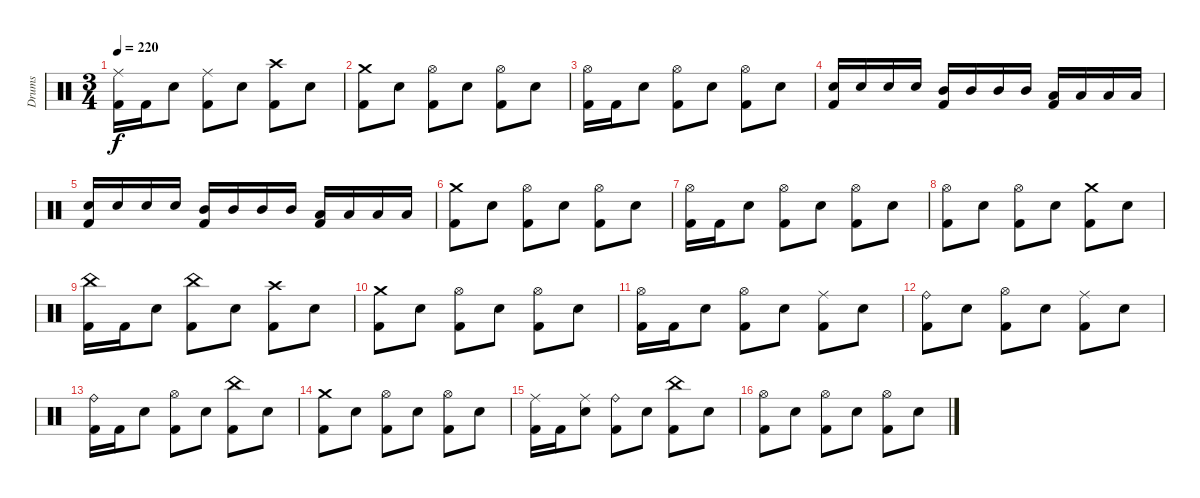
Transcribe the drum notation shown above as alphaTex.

\track ("Drums" "Drums") {instrument percussion}
\staff {score}
\articulation defaults
\ts (3 4)
\tempo 220
\clef neutral
\ks c
("Ride (middle)" "Kick (hit) 2").16{dy f} "Kick (hit) 2".16 "Electric Snare (hit)".8 ("Ride (middle)" "Kick (hit) 2").8 "Electric Snare (hit)".8 ("Crash high (hit)" "Kick (hit) 2").8 "Electric Snare (hit)".8 |
("Crash medium (hit)" "Kick (hit) 2").8 "Electric Snare (hit)".8 ("Hi-Hat (open)" "Kick (hit) 2").8 "Electric Snare (hit)".8 ("Hi-Hat (open)" "Kick (hit) 2").8 "Electric Snare (hit)".8 |
("Hi-Hat (open)" "Kick (hit) 2").16 "Kick (hit) 2".16 "Electric Snare (hit)".8 ("Hi-Hat (open)" "Kick (hit) 2").8 "Electric Snare (hit)".8 ("Hi-Hat (open)" "Kick (hit) 2").8 "Electric Snare (hit)".8 |
("Electric Snare (hit)" "Kick (hit) 2").16 "Electric Snare (hit)".16 "Electric Snare (hit)".16 "Electric Snare (hit)".16 ("Mid Tom (hit)" "Kick (hit) 2").16 "Mid Tom (hit)".16 "Mid Tom (hit)".16 "Mid Tom (hit)".16 ("Low Tom (hit)" "Kick (hit) 2").16 "Low Tom (hit)".16 "Low Tom (hit)".16 "Low Tom (hit)".16 |
("Electric Snare (hit)" "Kick (hit) 2").16 "Electric Snare (hit)".16 "Electric Snare (hit)".16 "Electric Snare (hit)".16 ("Mid Tom (hit)" "Kick (hit) 2").16 "Mid Tom (hit)".16 "Mid Tom (hit)".16 "Mid Tom (hit)".16 ("Low Tom (hit)" "Kick (hit) 2").16 "Low Tom (hit)".16 "Low Tom (hit)".16 "Low Tom (hit)".16 |
("Crash medium (hit)" "Kick (hit) 2").8 "Electric Snare (hit)".8 ("Hi-Hat (open)" "Kick (hit) 2").8 "Electric Snare (hit)".8 ("Hi-Hat (open)" "Kick (hit) 2").8 "Electric Snare (hit)".8 |
("Hi-Hat (open)" "Kick (hit) 2").16 "Kick (hit) 2".16 "Electric Snare (hit)".8 ("Hi-Hat (open)" "Kick (hit) 2").8 "Electric Snare (hit)".8 ("Hi-Hat (open)" "Kick (hit) 2").8 "Electric Snare (hit)".8 |
("Hi-Hat (open)" "Kick (hit) 2").8 "Electric Snare (hit)".8 ("Hi-Hat (open)" "Kick (hit) 2").8 "Electric Snare (hit)".8 ("Crash medium (hit)" "Kick (hit) 2").8 "Electric Snare (hit)".8 |
("China (hit)" "Kick (hit) 2").16 "Kick (hit) 2".16 "Electric Snare (hit)".8 ("China (hit)" "Kick (hit) 2").8 "Electric Snare (hit)".8 ("Crash high (hit)" "Kick (hit) 2").8 "Electric Snare (hit)".8 |
("Crash medium (hit)" "Kick (hit) 2").8 "Electric Snare (hit)".8 ("Hi-Hat (open)" "Kick (hit) 2").8 "Electric Snare (hit)".8 ("Hi-Hat (open)" "Kick (hit) 2").8 "Electric Snare (hit)".8 |
("Hi-Hat (open)" "Kick (hit) 2").16 "Kick (hit) 2".16 "Electric Snare (hit)".8 ("Hi-Hat (open)" "Kick (hit) 2").8 "Electric Snare (hit)".8 ("Ride (middle)" "Kick (hit) 2").8 "Electric Snare (hit)".8 |
("Ride (bell)" "Kick (hit) 2").8 "Electric Snare (hit)".8 ("Hi-Hat (open)" "Kick (hit) 2").8 "Electric Snare (hit)".8 ("Ride (middle)" "Kick (hit) 2").8 "Electric Snare (hit)".8 |
("Ride (bell)" "Kick (hit) 2").16 "Kick (hit) 2".16 "Electric Snare (hit)".8 ("Hi-Hat (open)" "Kick (hit) 2").8 "Electric Snare (hit)".8 ("China (hit)" "Kick (hit) 2").8 "Electric Snare (hit)".8 |
("Crash medium (hit)" "Kick (hit) 2").8 "Electric Snare (hit)".8 ("Hi-Hat (open)" "Kick (hit) 2").8 "Electric Snare (hit)".8 ("Hi-Hat (open)" "Kick (hit) 2").8 "Electric Snare (hit)".8 |
("Ride (middle)" "Kick (hit) 2").16 "Kick (hit) 2".16 ("Ride (middle)" "Electric Snare (hit)").8 ("Ride (bell)" "Kick (hit) 2").8 "Electric Snare (hit)".8 ("China (hit)" "Kick (hit) 2").8 "Electric Snare (hit)".8 |
("Hi-Hat (open)" "Kick (hit) 2").8 "Electric Snare (hit)".8 ("Hi-Hat (open)" "Kick (hit) 2").8 "Electric Snare (hit)".8 ("Hi-Hat (open)" "Kick (hit) 2").8 "Electric Snare (hit)".8
